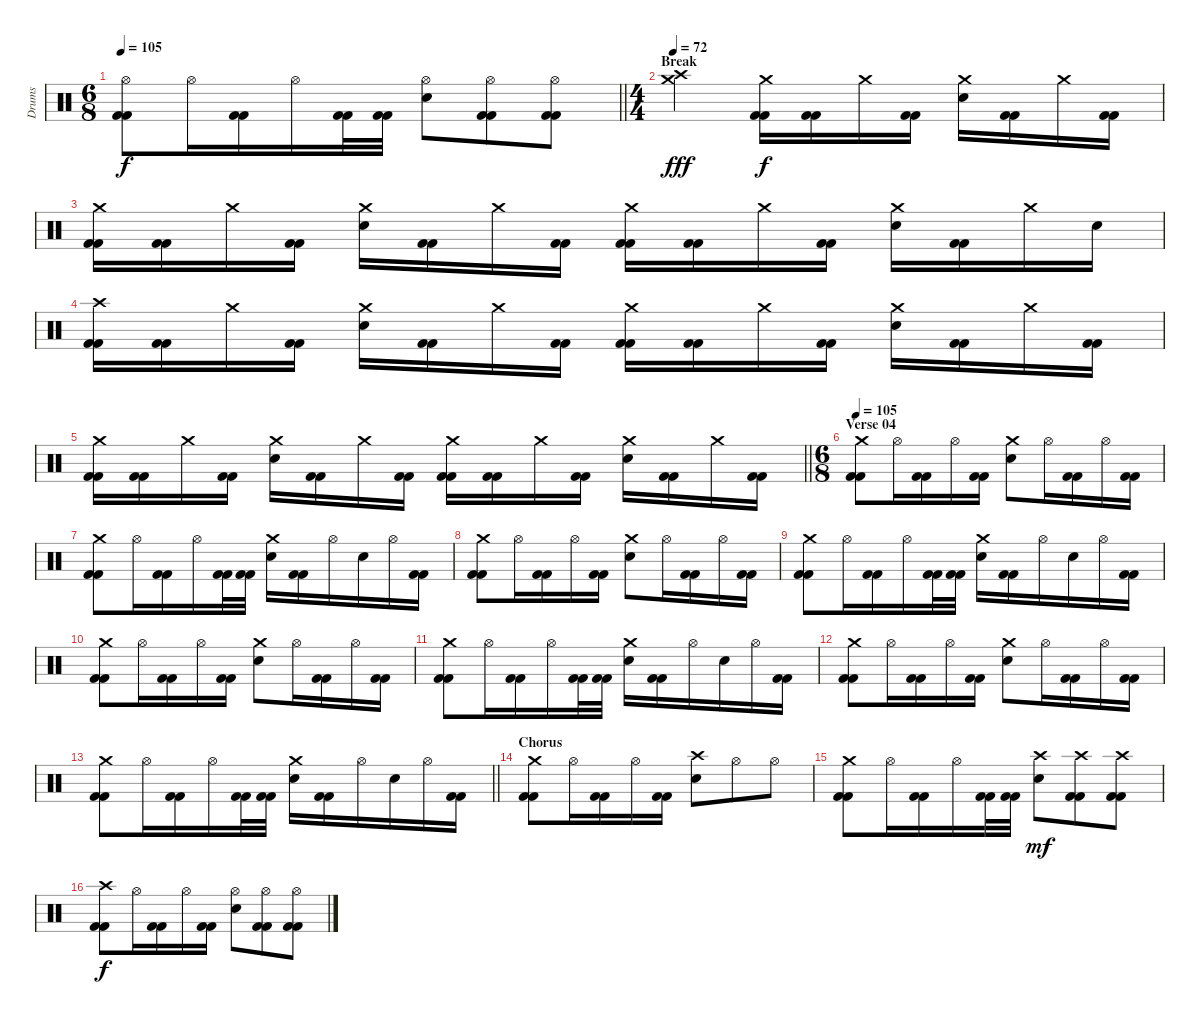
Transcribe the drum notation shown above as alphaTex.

\track ("Drums" "Drums") {instrument percussion}
\staff {score}
\articulation defaults
\ts (6 8)
\tempo 105
\clef neutral
\barLineRight lightlight
\ks c
("Hi-Hat (open)" "Kick (hit) 2" "Kick (hit) 2").8{dy f} "Hi-Hat (open)".16 ("Kick (hit) 2" "Kick (hit) 2").16 "Hi-Hat (open)".16 ("Kick (hit) 2" "Kick (hit) 2").32 ("Kick (hit) 2" "Kick (hit) 2").32 ("Hi-Hat (open)" "Electric Snare (hit)").8 ("Hi-Hat (open)" "Kick (hit) 2" "Kick (hit) 2").8 ("Hi-Hat (open)" "Kick (hit) 2" "Kick (hit) 2").8 |
\ts (4 4)
\section ("" "Break")
\tempo 72
("Crash medium (hit)" "Crash high (hit)").2{dy fff} ("Crash medium (hit)" "Kick (hit) 2" "Kick (hit) 2").16{dy f volume 7 balance 0} ("Kick (hit) 2" "Kick (hit) 2").16 "Crash medium (hit)".16 ("Kick (hit) 2" "Kick (hit) 2").16 ("Crash medium (hit)" "Electric Snare (hit)").16 ("Kick (hit) 2" "Kick (hit) 2").16 "Crash medium (hit)".16 ("Kick (hit) 2" "Kick (hit) 2").16 |
("Crash medium (hit)" "Kick (hit) 2" "Kick (hit) 2").16 ("Kick (hit) 2" "Kick (hit) 2").16 "Crash medium (hit)".16 ("Kick (hit) 2" "Kick (hit) 2").16 ("Crash medium (hit)" "Electric Snare (hit)").16 ("Kick (hit) 2" "Kick (hit) 2").16 "Crash medium (hit)".16 ("Kick (hit) 2" "Kick (hit) 2").16 ("Crash medium (hit)" "Kick (hit) 2" "Kick (hit) 2").16 ("Kick (hit) 2" "Kick (hit) 2").16 "Crash medium (hit)".16 ("Kick (hit) 2" "Kick (hit) 2").16 ("Crash medium (hit)" "Electric Snare (hit)").16 ("Kick (hit) 2" "Kick (hit) 2").16 "Crash medium (hit)".16 "Electric Snare (hit)".16 |
("Crash high (hit)" "Kick (hit) 2" "Kick (hit) 2").16 ("Kick (hit) 2" "Kick (hit) 2").16 "Crash medium (hit)".16 ("Kick (hit) 2" "Kick (hit) 2").16 ("Crash medium (hit)" "Electric Snare (hit)").16 ("Kick (hit) 2" "Kick (hit) 2").16 "Crash medium (hit)".16 ("Kick (hit) 2" "Kick (hit) 2").16 ("Crash medium (hit)" "Kick (hit) 2" "Kick (hit) 2").16 ("Kick (hit) 2" "Kick (hit) 2").16 "Crash medium (hit)".16 ("Kick (hit) 2" "Kick (hit) 2").16 ("Crash medium (hit)" "Electric Snare (hit)").16 ("Kick (hit) 2" "Kick (hit) 2").16 "Crash medium (hit)".16 ("Kick (hit) 2" "Kick (hit) 2").16 |
\barLineRight lightlight
("Crash medium (hit)" "Kick (hit) 2" "Kick (hit) 2").16 ("Kick (hit) 2" "Kick (hit) 2").16 "Crash medium (hit)".16 ("Kick (hit) 2" "Kick (hit) 2").16 ("Crash medium (hit)" "Electric Snare (hit)").16 ("Kick (hit) 2" "Kick (hit) 2").16 "Crash medium (hit)".16 ("Kick (hit) 2" "Kick (hit) 2").16 ("Crash medium (hit)" "Kick (hit) 2" "Kick (hit) 2").16 ("Kick (hit) 2" "Kick (hit) 2").16 "Crash medium (hit)".16 ("Kick (hit) 2" "Kick (hit) 2").16 ("Crash medium (hit)" "Electric Snare (hit)").16 ("Kick (hit) 2" "Kick (hit) 2").16 "Crash medium (hit)".16 ("Kick (hit) 2" "Kick (hit) 2").16 |
\ts (6 8)
\section ("" "Verse 04")
\tempo 105
("Crash medium (hit)" "Kick (hit) 2" "Kick (hit) 2").8{volume 16 balance 8} "Hi-Hat (open)".16 ("Kick (hit) 2" "Kick (hit) 2").16 "Hi-Hat (open)".16 ("Kick (hit) 2" "Kick (hit) 2").16 ("Crash medium (hit)" "Electric Snare (hit)").8 "Hi-Hat (open)".16 ("Kick (hit) 2" "Kick (hit) 2").16 "Hi-Hat (open)".16 ("Kick (hit) 2" "Kick (hit) 2").16 |
("Crash medium (hit)" "Kick (hit) 2" "Kick (hit) 2").8 "Hi-Hat (open)".16 ("Kick (hit) 2" "Kick (hit) 2").16 "Hi-Hat (open)".16 ("Kick (hit) 2" "Kick (hit) 2").32 ("Kick (hit) 2" "Kick (hit) 2").32 ("Crash medium (hit)" "Electric Snare (hit)").16 ("Kick (hit) 2" "Kick (hit) 2").16 "Hi-Hat (open)".16 "Electric Snare (hit)".16 "Hi-Hat (open)".16 ("Kick (hit) 2" "Kick (hit) 2").16 |
("Crash medium (hit)" "Kick (hit) 2" "Kick (hit) 2").8 "Hi-Hat (open)".16 ("Kick (hit) 2" "Kick (hit) 2").16 "Hi-Hat (open)".16 ("Kick (hit) 2" "Kick (hit) 2").16 ("Crash medium (hit)" "Electric Snare (hit)").8 "Hi-Hat (open)".16 ("Kick (hit) 2" "Kick (hit) 2").16 "Hi-Hat (open)".16 ("Kick (hit) 2" "Kick (hit) 2").16 |
("Crash medium (hit)" "Kick (hit) 2" "Kick (hit) 2").8 "Hi-Hat (open)".16 ("Kick (hit) 2" "Kick (hit) 2").16 "Hi-Hat (open)".16 ("Kick (hit) 2" "Kick (hit) 2").32 ("Kick (hit) 2" "Kick (hit) 2").32 ("Crash medium (hit)" "Electric Snare (hit)").16 ("Kick (hit) 2" "Kick (hit) 2").16 "Hi-Hat (open)".16 "Electric Snare (hit)".16 "Hi-Hat (open)".16 ("Kick (hit) 2" "Kick (hit) 2").16 |
("Crash medium (hit)" "Kick (hit) 2" "Kick (hit) 2").8 "Hi-Hat (open)".16 ("Kick (hit) 2" "Kick (hit) 2").16 "Hi-Hat (open)".16 ("Kick (hit) 2" "Kick (hit) 2").16 ("Crash medium (hit)" "Electric Snare (hit)").8 "Hi-Hat (open)".16 ("Kick (hit) 2" "Kick (hit) 2").16 "Hi-Hat (open)".16 ("Kick (hit) 2" "Kick (hit) 2").16 |
("Crash medium (hit)" "Kick (hit) 2" "Kick (hit) 2").8 "Hi-Hat (open)".16 ("Kick (hit) 2" "Kick (hit) 2").16 "Hi-Hat (open)".16 ("Kick (hit) 2" "Kick (hit) 2").32 ("Kick (hit) 2" "Kick (hit) 2").32 ("Crash medium (hit)" "Electric Snare (hit)").16 ("Kick (hit) 2" "Kick (hit) 2").16 "Hi-Hat (open)".16 "Electric Snare (hit)".16 "Hi-Hat (open)".16 ("Kick (hit) 2" "Kick (hit) 2").16 |
("Crash medium (hit)" "Kick (hit) 2" "Kick (hit) 2").8 "Hi-Hat (open)".16 ("Kick (hit) 2" "Kick (hit) 2").16 "Hi-Hat (open)".16 ("Kick (hit) 2" "Kick (hit) 2").16 ("Crash medium (hit)" "Electric Snare (hit)").8 "Hi-Hat (open)".16 ("Kick (hit) 2" "Kick (hit) 2").16 "Hi-Hat (open)".16 ("Kick (hit) 2" "Kick (hit) 2").16 |
\barLineRight lightlight
("Crash medium (hit)" "Kick (hit) 2" "Kick (hit) 2").8 "Hi-Hat (open)".16 ("Kick (hit) 2" "Kick (hit) 2").16 "Hi-Hat (open)".16 ("Kick (hit) 2" "Kick (hit) 2").32 ("Kick (hit) 2" "Kick (hit) 2").32 ("Crash medium (hit)" "Electric Snare (hit)").16 ("Kick (hit) 2" "Kick (hit) 2").16 "Hi-Hat (open)".16 "Electric Snare (hit)".16 "Hi-Hat (open)".16 ("Kick (hit) 2" "Kick (hit) 2").16 |
\section ("" "Chorus")
("Crash medium (hit)" "Kick (hit) 2" "Kick (hit) 2").8 "Hi-Hat (open)".16 ("Kick (hit) 2" "Kick (hit) 2").16 "Hi-Hat (open)".16 ("Kick (hit) 2" "Kick (hit) 2").16 ("Crash high (hit)" "Electric Snare (hit)").8 "Hi-Hat (open)".8 "Hi-Hat (open)".8 |
("Crash medium (hit)" "Kick (hit) 2" "Kick (hit) 2").8 "Hi-Hat (open)".16 ("Kick (hit) 2" "Kick (hit) 2").16 "Hi-Hat (open)".16 ("Kick (hit) 2" "Kick (hit) 2").32 ("Kick (hit) 2" "Kick (hit) 2").32 ("Crash high (hit)" "Electric Snare (hit)").8{dy mf} ("Crash high (hit)" "Kick (hit) 2" "Kick (hit) 2").8 ("Crash high (hit)" "Kick (hit) 2" "Kick (hit) 2").8 |
("Crash high (hit)" "Kick (hit) 2" "Kick (hit) 2").8{dy f} "Hi-Hat (open)".16 ("Kick (hit) 2" "Kick (hit) 2").16 "Hi-Hat (open)".16 ("Kick (hit) 2" "Kick (hit) 2").16 ("Hi-Hat (open)" "Electric Snare (hit)").8 ("Hi-Hat (open)" "Kick (hit) 2" "Kick (hit) 2").8 ("Hi-Hat (open)" "Kick (hit) 2" "Kick (hit) 2").8
